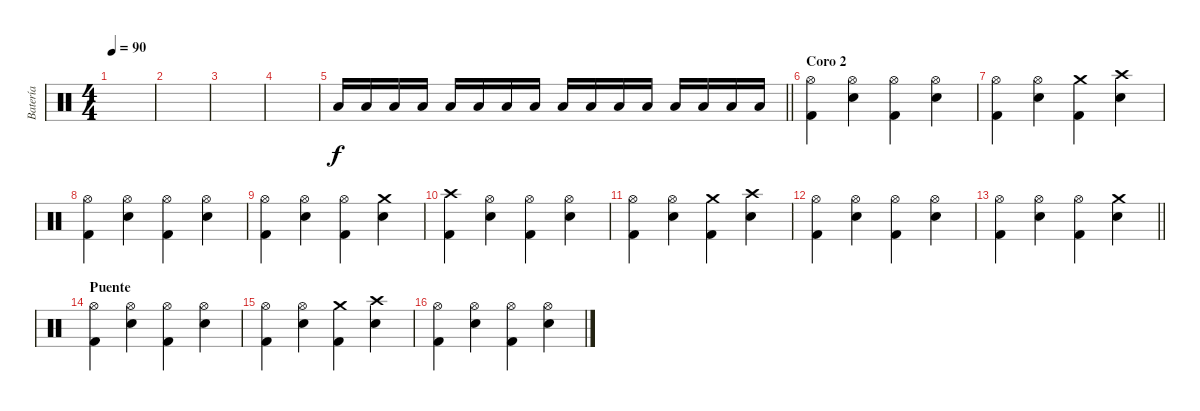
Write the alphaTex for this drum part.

\track ("Batería" "Batería") {instrument percussion}
\staff {score}
\articulation defaults
\ts (4 4)
\tempo 90
\clef neutral
\ks c
|
|
|
|
\barLineRight lightlight "Low Floor Tom (hit)".16{volume 13} "Low Floor Tom (hit)".16 "Low Floor Tom (hit)".16 "Low Floor Tom (hit)".16 "Low Floor Tom (hit)".16 "Low Floor Tom (hit)".16 "Low Floor Tom (hit)".16 "Low Floor Tom (hit)".16 "Low Floor Tom (hit)".16 "Low Floor Tom (hit)".16 "Low Floor Tom (hit)".16 "Low Floor Tom (hit)".16 "Low Floor Tom (hit)".16 "Low Floor Tom (hit)".16 "Low Floor Tom (hit)".16 "Low Floor Tom (hit)".16
|
\section ("" "Coro 2")
("Hi-Hat (open)" "Kick (hit) 2").4 ("Hi-Hat (open)" "Snare (hit) 2").4 ("Hi-Hat (open)" "Kick (hit) 2").4 ("Hi-Hat (open)" "Snare (hit) 2").4 |
("Hi-Hat (open)" "Kick (hit) 2").4 ("Hi-Hat (open)" "Snare (hit) 2").4 ("Crash medium (hit)" "Kick (hit) 2").4 ("Crash high (hit)" "Snare (hit) 2").4 |
("Hi-Hat (open)" "Kick (hit) 2").4 ("Hi-Hat (open)" "Snare (hit) 2").4 ("Hi-Hat (open)" "Kick (hit) 2").4 ("Hi-Hat (open)" "Snare (hit) 2").4 |
("Hi-Hat (open)" "Kick (hit) 2").4 ("Hi-Hat (open)" "Snare (hit) 2").4 ("Hi-Hat (open)" "Kick (hit) 2").4 ("Crash medium (hit)" "Snare (hit) 2").4 |
("Crash high (hit)" "Kick (hit) 2").4 ("Hi-Hat (open)" "Snare (hit) 2").4 ("Hi-Hat (open)" "Kick (hit) 2").4 ("Hi-Hat (open)" "Snare (hit) 2").4 |
("Hi-Hat (open)" "Kick (hit) 2").4 ("Hi-Hat (open)" "Snare (hit) 2").4 ("Crash medium (hit)" "Kick (hit) 2").4 ("Crash high (hit)" "Snare (hit) 2").4 |
("Hi-Hat (open)" "Kick (hit) 2").4 ("Hi-Hat (open)" "Snare (hit) 2").4 ("Hi-Hat (open)" "Kick (hit) 2").4 ("Hi-Hat (open)" "Snare (hit) 2").4 |
\barLineRight lightlight
("Hi-Hat (open)" "Kick (hit) 2").4 ("Hi-Hat (open)" "Snare (hit) 2").4 ("Hi-Hat (open)" "Kick (hit) 2").4 ("Crash medium (hit)" "Snare (hit) 2").4 |
\section ("" "Puente")
("Hi-Hat (open)" "Kick (hit) 2").4 ("Hi-Hat (open)" "Snare (hit) 2").4 ("Hi-Hat (open)" "Kick (hit) 2").4 ("Hi-Hat (open)" "Snare (hit) 2").4 |
("Hi-Hat (open)" "Kick (hit) 2").4 ("Hi-Hat (open)" "Snare (hit) 2").4 ("Crash medium (hit)" "Kick (hit) 2").4 ("Crash high (hit)" "Snare (hit) 2").4 |
("Hi-Hat (open)" "Kick (hit) 2").4 ("Hi-Hat (open)" "Snare (hit) 2").4 ("Hi-Hat (open)" "Kick (hit) 2").4 ("Hi-Hat (open)" "Snare (hit) 2").4
